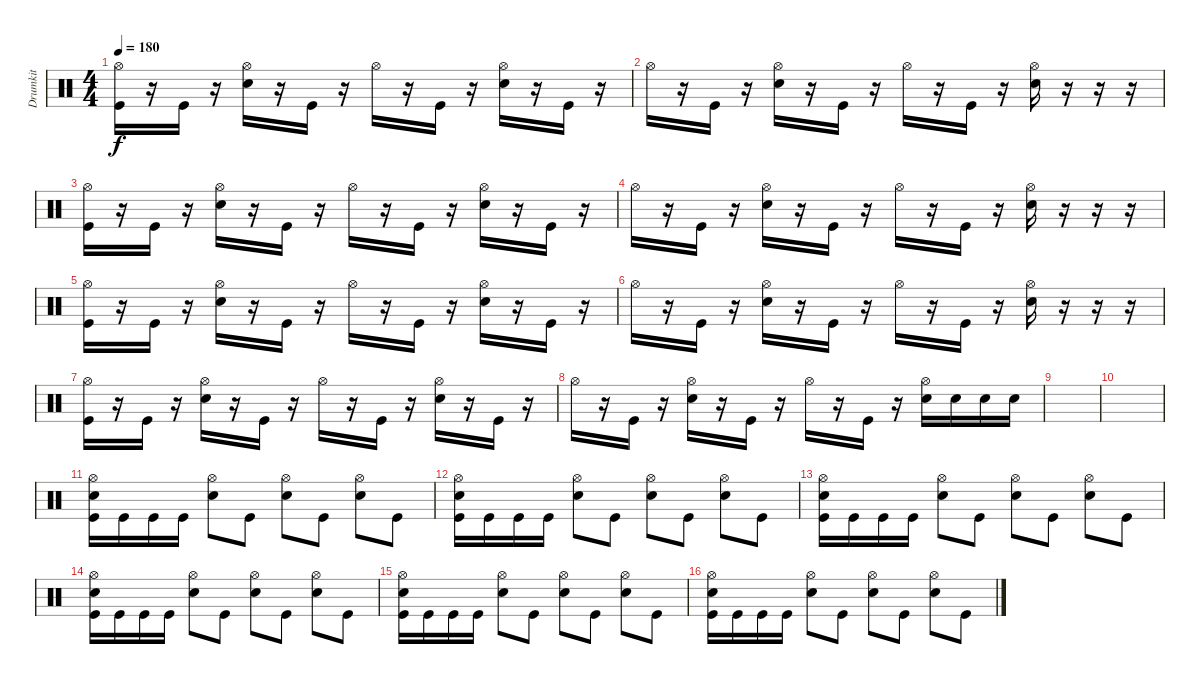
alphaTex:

\track ("Drumkit" "Drumkit") {instrument percussion}
\staff {score}
\articulation defaults
\ts (4 4)
\tempo 180
\clef neutral
\ks c
("Hi-Hat (open)" "Kick (hit)").16{dy f} r.16 "Kick (hit)".16 r.16 ("Hi-Hat (open)" "Snare (hit) 2").16 r.16 "Kick (hit)".16 r.16 "Hi-Hat (open)".16 r.16 "Kick (hit)".16 r.16 ("Hi-Hat (open)" "Snare (hit) 2").16 r.16 "Kick (hit)".16 r.16 |
"Hi-Hat (open)".16 r.16 "Kick (hit)".16 r.16 ("Hi-Hat (open)" "Snare (hit) 2").16 r.16 "Kick (hit)".16 r.16 "Hi-Hat (open)".16 r.16 "Kick (hit)".16 r.16 ("Hi-Hat (open)" "Snare (hit) 2").16 r.16 r.16 r.16 |
("Hi-Hat (open)" "Kick (hit)").16 r.16 "Kick (hit)".16 r.16 ("Hi-Hat (open)" "Snare (hit) 2").16 r.16 "Kick (hit)".16 r.16 "Hi-Hat (open)".16 r.16 "Kick (hit)".16 r.16 ("Hi-Hat (open)" "Snare (hit) 2").16 r.16 "Kick (hit)".16 r.16 |
"Hi-Hat (open)".16 r.16 "Kick (hit)".16 r.16 ("Hi-Hat (open)" "Snare (hit) 2").16 r.16 "Kick (hit)".16 r.16 "Hi-Hat (open)".16 r.16 "Kick (hit)".16 r.16 ("Hi-Hat (open)" "Snare (hit) 2").16 r.16 r.16 r.16 |
("Hi-Hat (open)" "Kick (hit)").16 r.16 "Kick (hit)".16 r.16 ("Hi-Hat (open)" "Snare (hit) 2").16 r.16 "Kick (hit)".16 r.16 "Hi-Hat (open)".16 r.16 "Kick (hit)".16 r.16 ("Hi-Hat (open)" "Snare (hit) 2").16 r.16 "Kick (hit)".16 r.16 |
"Hi-Hat (open)".16 r.16 "Kick (hit)".16 r.16 ("Hi-Hat (open)" "Snare (hit) 2").16 r.16 "Kick (hit)".16 r.16 "Hi-Hat (open)".16 r.16 "Kick (hit)".16 r.16 ("Hi-Hat (open)" "Snare (hit) 2").16 r.16 r.16 r.16 |
("Hi-Hat (open)" "Kick (hit)").16 r.16 "Kick (hit)".16 r.16 ("Hi-Hat (open)" "Snare (hit) 2").16 r.16 "Kick (hit)".16 r.16 "Hi-Hat (open)".16 r.16 "Kick (hit)".16 r.16 ("Hi-Hat (open)" "Snare (hit) 2").16 r.16 "Kick (hit)".16 r.16 |
"Hi-Hat (open)".16 r.16 "Kick (hit)".16 r.16 ("Hi-Hat (open)" "Snare (hit) 2").16 r.16 "Kick (hit)".16 r.16 "Hi-Hat (open)".16 r.16 "Kick (hit)".16 r.16 ("Hi-Hat (open)" "Snare (hit) 2").16 "Snare (hit) 2".16 "Snare (hit) 2".16 "Snare (hit) 2".16 |
|
|
("Hi-Hat (open)" "Snare (hit) 2" "Kick (hit)").16 "Kick (hit)".16 "Kick (hit)".16 "Kick (hit)".16 ("Hi-Hat (open)" "Snare (hit) 2").8 "Kick (hit)".8 ("Hi-Hat (open)" "Snare (hit) 2").8 "Kick (hit)".8 ("Hi-Hat (open)" "Snare (hit) 2").8 "Kick (hit)".8 |
("Hi-Hat (open)" "Snare (hit) 2" "Kick (hit)").16 "Kick (hit)".16 "Kick (hit)".16 "Kick (hit)".16 ("Hi-Hat (open)" "Snare (hit) 2").8 "Kick (hit)".8 ("Hi-Hat (open)" "Snare (hit) 2").8 "Kick (hit)".8 ("Hi-Hat (open)" "Snare (hit) 2").8 "Kick (hit)".8 |
("Hi-Hat (open)" "Snare (hit) 2" "Kick (hit)").16 "Kick (hit)".16 "Kick (hit)".16 "Kick (hit)".16 ("Hi-Hat (open)" "Snare (hit) 2").8 "Kick (hit)".8 ("Hi-Hat (open)" "Snare (hit) 2").8 "Kick (hit)".8 ("Hi-Hat (open)" "Snare (hit) 2").8 "Kick (hit)".8 |
("Hi-Hat (open)" "Snare (hit) 2" "Kick (hit)").16 "Kick (hit)".16 "Kick (hit)".16 "Kick (hit)".16 ("Hi-Hat (open)" "Snare (hit) 2").8 "Kick (hit)".8 ("Hi-Hat (open)" "Snare (hit) 2").8 "Kick (hit)".8 ("Hi-Hat (open)" "Snare (hit) 2").8 "Kick (hit)".8 |
("Hi-Hat (open)" "Snare (hit) 2" "Kick (hit)").16 "Kick (hit)".16 "Kick (hit)".16 "Kick (hit)".16 ("Hi-Hat (open)" "Snare (hit) 2").8 "Kick (hit)".8 ("Hi-Hat (open)" "Snare (hit) 2").8 "Kick (hit)".8 ("Hi-Hat (open)" "Snare (hit) 2").8 "Kick (hit)".8 |
("Hi-Hat (open)" "Snare (hit) 2" "Kick (hit)").16 "Kick (hit)".16 "Kick (hit)".16 "Kick (hit)".16 ("Hi-Hat (open)" "Snare (hit) 2").8 "Kick (hit)".8 ("Hi-Hat (open)" "Snare (hit) 2").8 "Kick (hit)".8 ("Hi-Hat (open)" "Snare (hit) 2").8 "Kick (hit)".8
